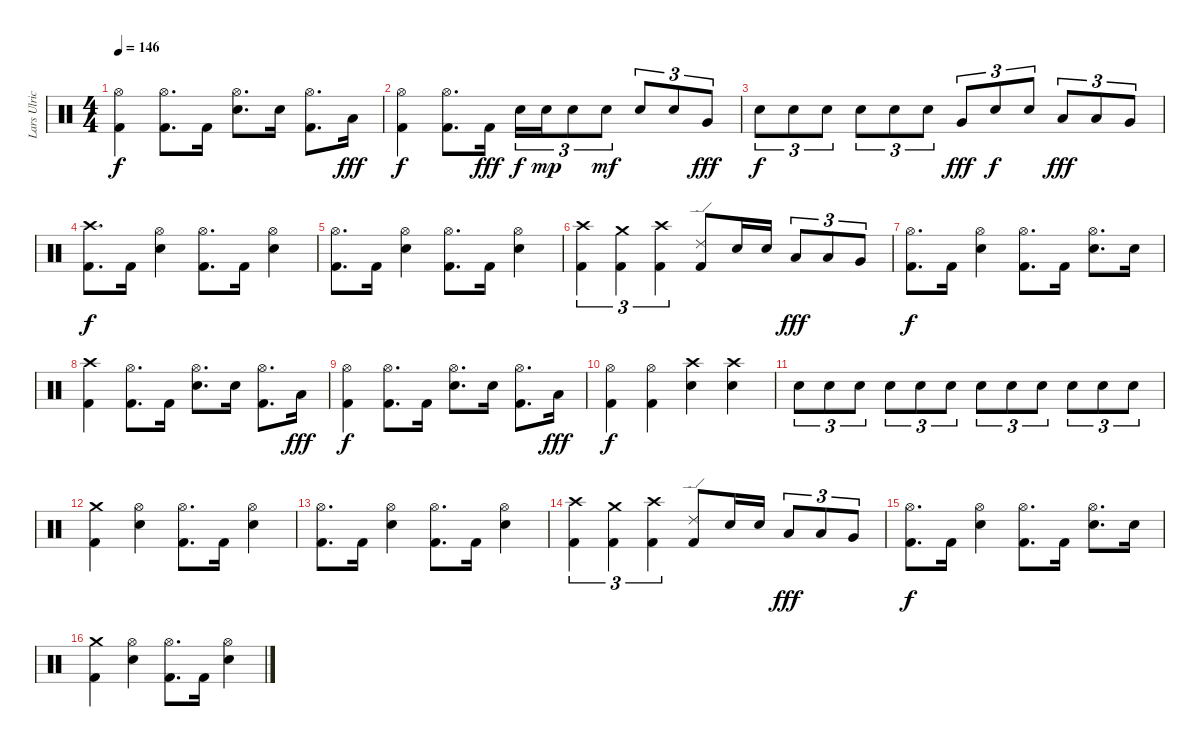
\track ("Lars Ulrich" "Lars Ulric") {instrument percussion}
\staff {score}
\articulation defaults
\ts (4 4)
\tempo 146
\clef neutral
\ks c
("Hi-Hat (open)" "Kick (hit) 2").4{dy f} ("Hi-Hat (open)" "Kick (hit) 2").8{d} "Kick (hit) 2".16 ("Hi-Hat (open)" "Electric Snare (hit)").8{d} "Electric Snare (hit)".16 ("Hi-Hat (open)" "Kick (hit) 2").8{d} "Low Tom (hit)".16{dy fff} |
("Hi-Hat (open)" "Kick (hit) 2").4{dy f} ("Hi-Hat (open)" "Kick (hit) 2").8{d} "Kick (hit) 2".16{dy fff} "Electric Snare (hit)".16{tu (3 2) dy f} "Electric Snare (hit)".16{tu (3 2) dy mp} "Electric Snare (hit)".8{tu (3 2)} "Electric Snare (hit)".8{tu (3 2) dy mf} "Electric Snare (hit)".8{tu (3 2)} "Electric Snare (hit)".8{tu (3 2)} "Very Low Tom (hit)".8{tu (3 2) dy fff} |
"Electric Snare (hit)".8{tu (3 2) dy f} "Electric Snare (hit)".8{tu (3 2)} "Electric Snare (hit)".8{tu (3 2)} "Electric Snare (hit)".8{tu (3 2)} "Electric Snare (hit)".8{tu (3 2)} "Electric Snare (hit)".8{tu (3 2)} "Very Low Tom (hit)".8{tu (3 2) dy fff} "Electric Snare (hit)".8{tu (3 2) dy f} "Electric Snare (hit)".8{tu (3 2)} "Low Tom (hit)".8{tu (3 2) dy fff} "Low Tom (hit)".8{tu (3 2)} "Very Low Tom (hit)".8{tu (3 2)} |
("Crash high (hit)" "Kick (hit) 2").8{d dy f} "Kick (hit) 2".16 ("Hi-Hat (open)" "Electric Snare (hit)").4 ("Hi-Hat (open)" "Kick (hit) 2").8{d} "Kick (hit) 2".16 ("Hi-Hat (open)" "Electric Snare (hit)").4 |
("Hi-Hat (open)" "Kick (hit) 2").8{d} "Kick (hit) 2".16 ("Hi-Hat (open)" "Electric Snare (hit)").4 ("Hi-Hat (open)" "Kick (hit) 2").8{d} "Kick (hit) 2".16 ("Hi-Hat (open)" "Electric Snare (hit)").4 |
("Crash high (hit)" "Kick (hit) 2").4{tu (3 2)} ("Crash medium (hit)" "Kick (hit) 2").4{tu (3 2)} ("Crash high (hit)" "Kick (hit) 2").4{tu (3 2)} ("Ride (edge) 2" "Kick (hit) 2").8 "Electric Snare (hit)".16 "Electric Snare (hit)".16 "Low Tom (hit)".8{tu (3 2) dy fff} "Low Tom (hit)".8{tu (3 2)} "Very Low Tom (hit)".8{tu (3 2)} |
("Hi-Hat (open)" "Kick (hit) 2").8{d dy f} "Kick (hit) 2".16 ("Hi-Hat (open)" "Electric Snare (hit)").4 ("Hi-Hat (open)" "Kick (hit) 2").8{d} "Kick (hit) 2".16 ("Hi-Hat (open)" "Electric Snare (hit)").8{d} "Electric Snare (hit)".16 |
("Crash high (hit)" "Kick (hit) 2").4 ("Hi-Hat (open)" "Kick (hit) 2").8{d} "Kick (hit) 2".16 ("Hi-Hat (open)" "Electric Snare (hit)").8{d} "Electric Snare (hit)".16 ("Hi-Hat (open)" "Kick (hit) 2").8{d} "Low Tom (hit)".16{dy fff} |
("Hi-Hat (open)" "Kick (hit) 2").4{dy f} ("Hi-Hat (open)" "Kick (hit) 2").8{d} "Kick (hit) 2".16 ("Hi-Hat (open)" "Electric Snare (hit)").8{d} "Electric Snare (hit)".16 ("Hi-Hat (open)" "Kick (hit) 2").8{d} "Low Tom (hit)".16{dy fff} |
("Hi-Hat (open)" "Kick (hit) 2").4{dy f} ("Hi-Hat (open)" "Kick (hit) 2").4 ("Crash high (hit)" "Electric Snare (hit)").4 ("Crash high (hit)" "Electric Snare (hit)").4 |
"Electric Snare (hit)".8{tu (3 2)} "Electric Snare (hit)".8{tu (3 2)} "Electric Snare (hit)".8{tu (3 2)} "Electric Snare (hit)".8{tu (3 2)} "Electric Snare (hit)".8{tu (3 2)} "Electric Snare (hit)".8{tu (3 2)} "Electric Snare (hit)".8{tu (3 2)} "Electric Snare (hit)".8{tu (3 2)} "Electric Snare (hit)".8{tu (3 2)} "Electric Snare (hit)".8{tu (3 2)} "Electric Snare (hit)".8{tu (3 2)} "Electric Snare (hit)".8{tu (3 2)} |
("Crash medium (hit)" "Kick (hit) 2").4 ("Hi-Hat (open)" "Electric Snare (hit)").4 ("Hi-Hat (open)" "Kick (hit) 2").8{d} "Kick (hit) 2".16 ("Hi-Hat (open)" "Electric Snare (hit)").4 |
("Hi-Hat (open)" "Kick (hit) 2").8{d} "Kick (hit) 2".16 ("Hi-Hat (open)" "Electric Snare (hit)").4 ("Hi-Hat (open)" "Kick (hit) 2").8{d} "Kick (hit) 2".16 ("Hi-Hat (open)" "Electric Snare (hit)").4 |
("Crash high (hit)" "Kick (hit) 2").4{tu (3 2)} ("Crash medium (hit)" "Kick (hit) 2").4{tu (3 2)} ("Crash high (hit)" "Kick (hit) 2").4{tu (3 2)} ("Ride (edge) 2" "Kick (hit) 2").8 "Electric Snare (hit)".16 "Electric Snare (hit)".16 "Low Tom (hit)".8{tu (3 2) dy fff} "Low Tom (hit)".8{tu (3 2)} "Very Low Tom (hit)".8{tu (3 2)} |
("Hi-Hat (open)" "Kick (hit) 2").8{d dy f} "Kick (hit) 2".16 ("Hi-Hat (open)" "Electric Snare (hit)").4 ("Hi-Hat (open)" "Kick (hit) 2").8{d} "Kick (hit) 2".16 ("Hi-Hat (open)" "Electric Snare (hit)").8{d} "Electric Snare (hit)".16 |
("Crash medium (hit)" "Kick (hit) 2").4 ("Hi-Hat (open)" "Electric Snare (hit)").4 ("Hi-Hat (open)" "Kick (hit) 2").8{d} "Kick (hit) 2".16 ("Hi-Hat (open)" "Electric Snare (hit)").4
